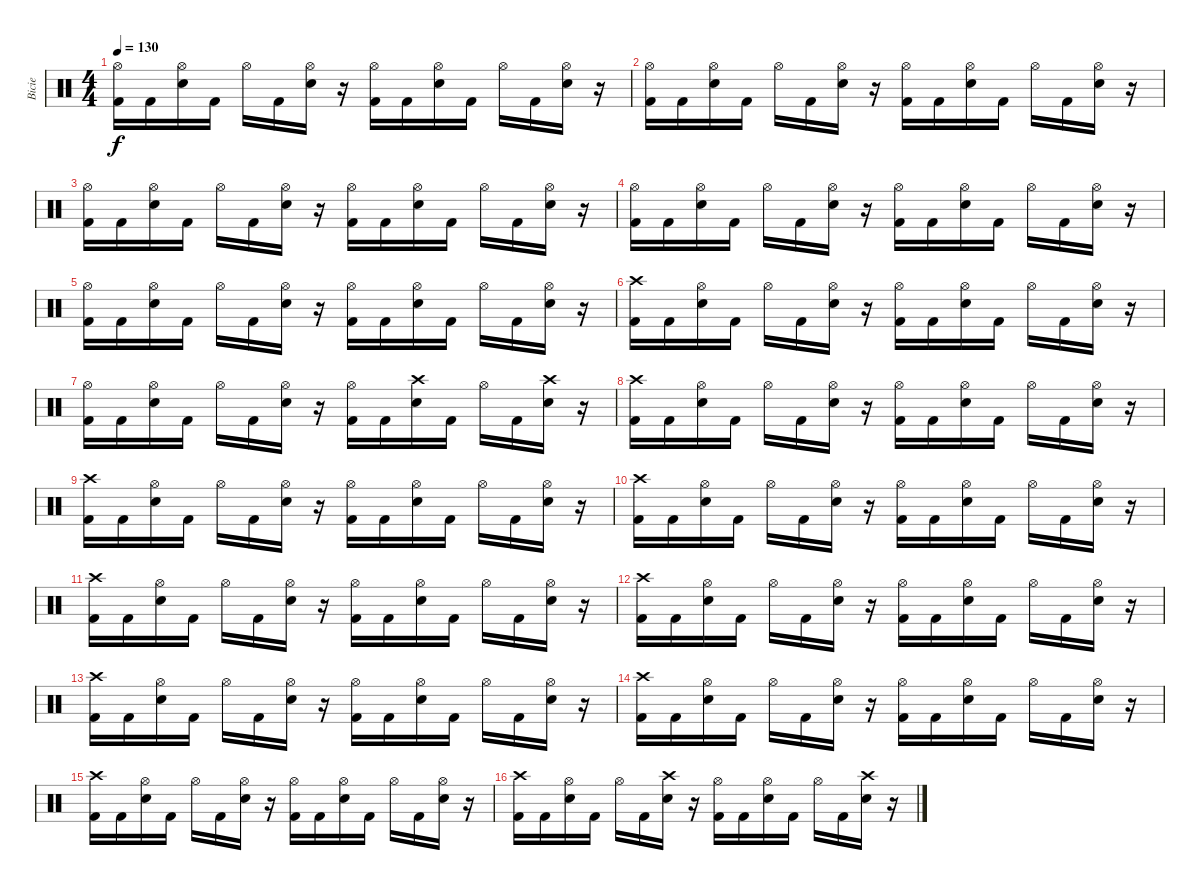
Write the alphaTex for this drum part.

\track ("Bicie" "Bicie") {instrument percussion}
\staff {score}
\articulation defaults
\ts (4 4)
\tempo 130
\clef neutral
\ks c
("Hi-Hat (open)" "Kick (hit) 2").16{dy f} "Kick (hit) 2".16 ("Hi-Hat (open)" "Snare (hit) 2").16 "Kick (hit) 2".16 "Hi-Hat (open)".16 "Kick (hit) 2".16 ("Hi-Hat (open)" "Snare (hit) 2").16 r.16 ("Hi-Hat (open)" "Kick (hit) 2").16 "Kick (hit) 2".16 ("Hi-Hat (open)" "Snare (hit) 2").16 "Kick (hit) 2".16 "Hi-Hat (open)".16 "Kick (hit) 2".16 ("Hi-Hat (open)" "Snare (hit) 2").16 r.16 |
("Hi-Hat (open)" "Kick (hit) 2").16 "Kick (hit) 2".16 ("Hi-Hat (open)" "Snare (hit) 2").16 "Kick (hit) 2".16 "Hi-Hat (open)".16 "Kick (hit) 2".16 ("Hi-Hat (open)" "Snare (hit) 2").16 r.16 ("Hi-Hat (open)" "Kick (hit) 2").16 "Kick (hit) 2".16 ("Hi-Hat (open)" "Snare (hit) 2").16 "Kick (hit) 2".16 "Hi-Hat (open)".16 "Kick (hit) 2".16 ("Hi-Hat (open)" "Snare (hit) 2").16 r.16 |
("Hi-Hat (open)" "Kick (hit) 2").16 "Kick (hit) 2".16 ("Hi-Hat (open)" "Snare (hit) 2").16 "Kick (hit) 2".16 "Hi-Hat (open)".16 "Kick (hit) 2".16 ("Hi-Hat (open)" "Snare (hit) 2").16 r.16 ("Hi-Hat (open)" "Kick (hit) 2").16 "Kick (hit) 2".16 ("Hi-Hat (open)" "Snare (hit) 2").16 "Kick (hit) 2".16 "Hi-Hat (open)".16 "Kick (hit) 2".16 ("Hi-Hat (open)" "Snare (hit) 2").16 r.16 |
("Hi-Hat (open)" "Kick (hit) 2").16 "Kick (hit) 2".16 ("Hi-Hat (open)" "Snare (hit) 2").16 "Kick (hit) 2".16 "Hi-Hat (open)".16 "Kick (hit) 2".16 ("Hi-Hat (open)" "Snare (hit) 2").16 r.16 ("Hi-Hat (open)" "Kick (hit) 2").16 "Kick (hit) 2".16 ("Hi-Hat (open)" "Snare (hit) 2").16 "Kick (hit) 2".16 "Hi-Hat (open)".16 "Kick (hit) 2".16 ("Hi-Hat (open)" "Snare (hit) 2").16 r.16 |
("Hi-Hat (open)" "Kick (hit) 2").16 "Kick (hit) 2".16 ("Hi-Hat (open)" "Snare (hit) 2").16 "Kick (hit) 2".16 "Hi-Hat (open)".16 "Kick (hit) 2".16 ("Hi-Hat (open)" "Snare (hit) 2").16 r.16 ("Hi-Hat (open)" "Kick (hit) 2").16 "Kick (hit) 2".16 ("Hi-Hat (open)" "Snare (hit) 2").16 "Kick (hit) 2".16 "Hi-Hat (open)".16 "Kick (hit) 2".16 ("Hi-Hat (open)" "Snare (hit) 2").16 r.16 |
("Crash high (hit)" "Kick (hit) 2").16 "Kick (hit) 2".16 ("Hi-Hat (open)" "Snare (hit) 2").16 "Kick (hit) 2".16 "Hi-Hat (open)".16 "Kick (hit) 2".16 ("Hi-Hat (open)" "Snare (hit) 2").16 r.16 ("Hi-Hat (open)" "Kick (hit) 2").16 "Kick (hit) 2".16 ("Hi-Hat (open)" "Snare (hit) 2").16 "Kick (hit) 2".16 "Hi-Hat (open)".16 "Kick (hit) 2".16 ("Hi-Hat (open)" "Snare (hit) 2").16 r.16 |
("Hi-Hat (open)" "Kick (hit) 2").16 "Kick (hit) 2".16 ("Hi-Hat (open)" "Snare (hit) 2").16 "Kick (hit) 2".16 "Hi-Hat (open)".16 "Kick (hit) 2".16 ("Hi-Hat (open)" "Snare (hit) 2").16 r.16 ("Hi-Hat (open)" "Kick (hit) 2").16 "Kick (hit) 2".16 ("Crash high (hit)" "Snare (hit) 2").16 "Kick (hit) 2".16 "Hi-Hat (open)".16 "Kick (hit) 2".16 ("Crash high (hit)" "Snare (hit) 2").16 r.16 |
("Crash high (hit)" "Kick (hit) 2").16 "Kick (hit) 2".16 ("Hi-Hat (open)" "Snare (hit) 2").16 "Kick (hit) 2".16 "Hi-Hat (open)".16 "Kick (hit) 2".16 ("Hi-Hat (open)" "Snare (hit) 2").16 r.16 ("Hi-Hat (open)" "Kick (hit) 2").16 "Kick (hit) 2".16 ("Hi-Hat (open)" "Snare (hit) 2").16 "Kick (hit) 2".16 "Hi-Hat (open)".16 "Kick (hit) 2".16 ("Hi-Hat (open)" "Snare (hit) 2").16 r.16 |
("Crash high (hit)" "Kick (hit) 2").16 "Kick (hit) 2".16 ("Hi-Hat (open)" "Snare (hit) 2").16 "Kick (hit) 2".16 "Hi-Hat (open)".16 "Kick (hit) 2".16 ("Hi-Hat (open)" "Snare (hit) 2").16 r.16 ("Hi-Hat (open)" "Kick (hit) 2").16 "Kick (hit) 2".16 ("Hi-Hat (open)" "Snare (hit) 2").16 "Kick (hit) 2".16 "Hi-Hat (open)".16 "Kick (hit) 2".16 ("Hi-Hat (open)" "Snare (hit) 2").16 r.16 |
("Crash high (hit)" "Kick (hit) 2").16 "Kick (hit) 2".16 ("Hi-Hat (open)" "Snare (hit) 2").16 "Kick (hit) 2".16 "Hi-Hat (open)".16 "Kick (hit) 2".16 ("Hi-Hat (open)" "Snare (hit) 2").16 r.16 ("Hi-Hat (open)" "Kick (hit) 2").16 "Kick (hit) 2".16 ("Hi-Hat (open)" "Snare (hit) 2").16 "Kick (hit) 2".16 "Hi-Hat (open)".16 "Kick (hit) 2".16 ("Hi-Hat (open)" "Snare (hit) 2").16 r.16 |
("Crash high (hit)" "Kick (hit) 2").16 "Kick (hit) 2".16 ("Hi-Hat (open)" "Snare (hit) 2").16 "Kick (hit) 2".16 "Hi-Hat (open)".16 "Kick (hit) 2".16 ("Hi-Hat (open)" "Snare (hit) 2").16 r.16 ("Hi-Hat (open)" "Kick (hit) 2").16 "Kick (hit) 2".16 ("Hi-Hat (open)" "Snare (hit) 2").16 "Kick (hit) 2".16 "Hi-Hat (open)".16 "Kick (hit) 2".16 ("Hi-Hat (open)" "Snare (hit) 2").16 r.16 |
("Crash high (hit)" "Kick (hit) 2").16 "Kick (hit) 2".16 ("Hi-Hat (open)" "Snare (hit) 2").16 "Kick (hit) 2".16 "Hi-Hat (open)".16 "Kick (hit) 2".16 ("Hi-Hat (open)" "Snare (hit) 2").16 r.16 ("Hi-Hat (open)" "Kick (hit) 2").16 "Kick (hit) 2".16 ("Hi-Hat (open)" "Snare (hit) 2").16 "Kick (hit) 2".16 "Hi-Hat (open)".16 "Kick (hit) 2".16 ("Hi-Hat (open)" "Snare (hit) 2").16 r.16 |
("Crash high (hit)" "Kick (hit) 2").16 "Kick (hit) 2".16 ("Hi-Hat (open)" "Snare (hit) 2").16 "Kick (hit) 2".16 "Hi-Hat (open)".16 "Kick (hit) 2".16 ("Hi-Hat (open)" "Snare (hit) 2").16 r.16 ("Hi-Hat (open)" "Kick (hit) 2").16 "Kick (hit) 2".16 ("Hi-Hat (open)" "Snare (hit) 2").16 "Kick (hit) 2".16 "Hi-Hat (open)".16 "Kick (hit) 2".16 ("Hi-Hat (open)" "Snare (hit) 2").16 r.16 |
("Crash high (hit)" "Kick (hit) 2").16 "Kick (hit) 2".16 ("Hi-Hat (open)" "Snare (hit) 2").16 "Kick (hit) 2".16 "Hi-Hat (open)".16 "Kick (hit) 2".16 ("Hi-Hat (open)" "Snare (hit) 2").16 r.16 ("Hi-Hat (open)" "Kick (hit) 2").16 "Kick (hit) 2".16 ("Hi-Hat (open)" "Snare (hit) 2").16 "Kick (hit) 2".16 "Hi-Hat (open)".16 "Kick (hit) 2".16 ("Hi-Hat (open)" "Snare (hit) 2").16 r.16 |
("Crash high (hit)" "Kick (hit) 2").16 "Kick (hit) 2".16 ("Hi-Hat (open)" "Snare (hit) 2").16 "Kick (hit) 2".16 "Hi-Hat (open)".16 "Kick (hit) 2".16 ("Hi-Hat (open)" "Snare (hit) 2").16 r.16 ("Hi-Hat (open)" "Kick (hit) 2").16 "Kick (hit) 2".16 ("Hi-Hat (open)" "Snare (hit) 2").16 "Kick (hit) 2".16 "Hi-Hat (open)".16 "Kick (hit) 2".16 ("Hi-Hat (open)" "Snare (hit) 2").16 r.16 |
("Crash high (hit)" "Kick (hit) 2").16 "Kick (hit) 2".16 ("Hi-Hat (open)" "Snare (hit) 2").16 "Kick (hit) 2".16 "Hi-Hat (open)".16 "Kick (hit) 2".16 ("Crash high (hit)" "Snare (hit) 2").16 r.16 ("Hi-Hat (open)" "Kick (hit) 2").16 "Kick (hit) 2".16 ("Hi-Hat (open)" "Snare (hit) 2").16 "Kick (hit) 2".16 "Hi-Hat (open)".16 "Kick (hit) 2".16 ("Crash high (hit)" "Snare (hit) 2").16 r.16
